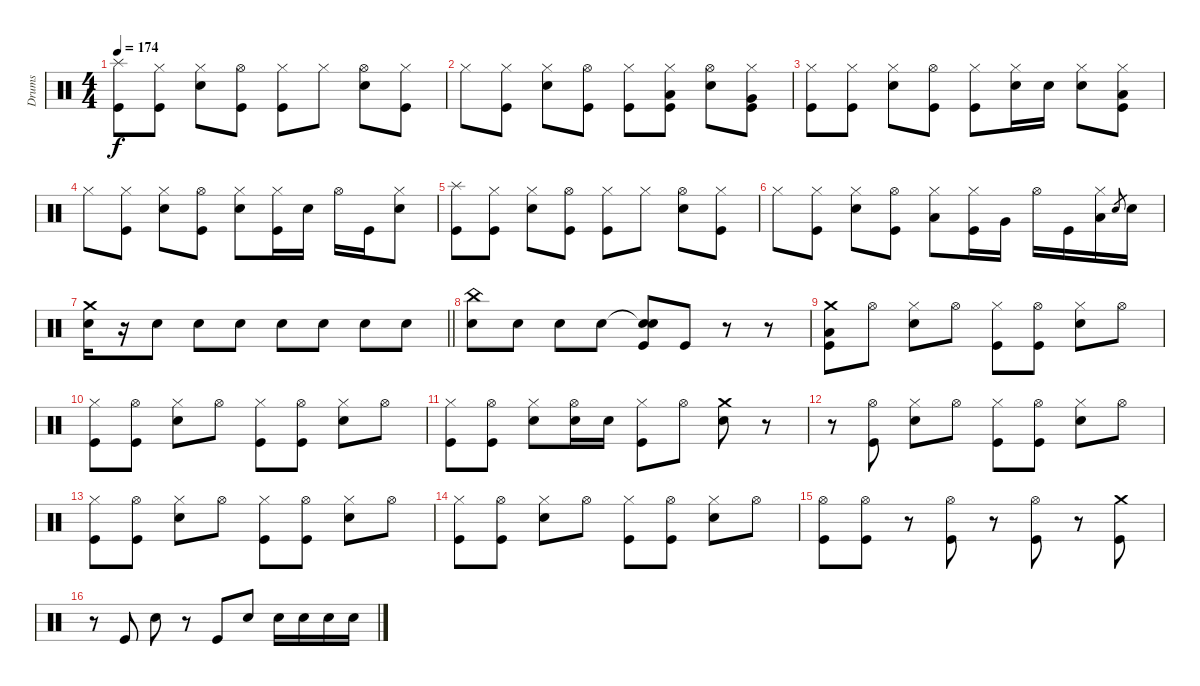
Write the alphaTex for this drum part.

\track ("Drums" "Drums") {instrument percussion}
\staff {score}
\articulation defaults
\ts (4 4)
\tempo 174
\clef neutral
\ks c
("Splash (hit)" "Kick (hit)").8{dy f} ("Hi-Hat (closed)" "Kick (hit)").8 ("Hi-Hat (closed)" "Electric Snare (hit)").8 ("Hi-Hat (open)" "Kick (hit)").8 ("Hi-Hat (closed)" "Kick (hit)").8 "Hi-Hat (closed)".8 ("Hi-Hat (open)" "Electric Snare (hit)").8 ("Hi-Hat (closed)" "Kick (hit)").8 |
"Hi-Hat (closed)".8 ("Hi-Hat (closed)" "Kick (hit)").8 ("Hi-Hat (closed)" "Electric Snare (hit)").8 ("Hi-Hat (open)" "Kick (hit)").8 ("Hi-Hat (closed)" "Kick (hit)").8 ("Hi-Hat (closed)" "Low Tom (hit)" "Kick (hit)").8 ("Hi-Hat (open)" "Electric Snare (hit)").8 ("Hi-Hat (closed)" "Very Low Tom (hit)" "Kick (hit)").8 |
("Hi-Hat (closed)" "Kick (hit)").8 ("Hi-Hat (closed)" "Kick (hit)").8 ("Hi-Hat (closed)" "Electric Snare (hit)").8 ("Hi-Hat (open)" "Kick (hit)").8 ("Hi-Hat (closed)" "Kick (hit)").8 ("Hi-Hat (closed)" "Electric Snare (hit)").16 "Electric Snare (hit)".16 ("Hi-Hat (closed)" "Electric Snare (hit)").8 ("Hi-Hat (closed)" "Low Floor Tom (hit)" "Kick (hit)").8 |
"Hi-Hat (closed)".8 ("Hi-Hat (closed)" "Kick (hit)").8 ("Hi-Hat (closed)" "Electric Snare (hit)").8 ("Hi-Hat (open)" "Kick (hit)").8 ("Hi-Hat (closed)" "Electric Snare (hit)").8 ("Hi-Hat (closed)" "Kick (hit)").16 "Electric Snare (hit)".16 "Hi-Hat (open)".16 "Kick (hit)".16 ("Hi-Hat (closed)" "Electric Snare (hit)").8 |
("Splash (hit)" "Kick (hit)").8 ("Hi-Hat (closed)" "Kick (hit)").8 ("Hi-Hat (closed)" "Electric Snare (hit)").8 ("Hi-Hat (open)" "Kick (hit)").8 ("Hi-Hat (closed)" "Kick (hit)").8 "Hi-Hat (closed)".8 ("Hi-Hat (open)" "Electric Snare (hit)").8 ("Hi-Hat (closed)" "Kick (hit)").8 |
"Hi-Hat (closed)".8 ("Hi-Hat (closed)" "Kick (hit)").8 ("Hi-Hat (closed)" "Electric Snare (hit)").8 ("Hi-Hat (open)" "Kick (hit)").8 ("Hi-Hat (closed)" "Low Tom (hit)").8 ("Hi-Hat (closed)" "Kick (hit)").16 "Very Low Tom (hit)".16 "Hi-Hat (open)".16 "Kick (hit)".16 ("Hi-Hat (closed)" "Low Floor Tom (hit)").16 "Electric Snare (hit)".8{gr} "Electric Snare (hit)".16 |
\barLineRight lightlight
("Crash medium (hit)" "Electric Snare (hit)").16 r.16 "Electric Snare (hit)".8 "Electric Snare (hit)".8 "Electric Snare (hit)".8 "Electric Snare (hit)".8 "Electric Snare (hit)".8 "Electric Snare (hit)".8 "Electric Snare (hit)".8 |
("China (hit)" "Electric Snare (hit)").8 "Electric Snare (hit)".8 "Electric Snare (hit)".8 "Electric Snare (hit)".8 ("Snare (hit)"{t} "Electric Snare (hit)" "Kick (hit)").8 "Kick (hit)".8 r.8 r.8 |
("Crash medium (hit)" "Low Floor Tom (hit)" "Kick (hit)").8 "Hi-Hat (open)".8 ("Hi-Hat (closed)" "Electric Snare (hit)").8 "Hi-Hat (open)".8 ("Hi-Hat (closed)" "Kick (hit)").8 ("Hi-Hat (open)" "Kick (hit)").8 ("Hi-Hat (closed)" "Electric Snare (hit)").8 "Hi-Hat (open)".8 |
("Hi-Hat (closed)" "Kick (hit)").8 ("Hi-Hat (open)" "Kick (hit)").8 ("Hi-Hat (closed)" "Electric Snare (hit)").8 "Hi-Hat (open)".8 ("Hi-Hat (closed)" "Kick (hit)").8 ("Hi-Hat (open)" "Kick (hit)").8 ("Hi-Hat (closed)" "Electric Snare (hit)").8 "Hi-Hat (open)".8 |
("Hi-Hat (closed)" "Kick (hit)").8 ("Hi-Hat (open)" "Kick (hit)").8 ("Hi-Hat (closed)" "Electric Snare (hit)").8 ("Hi-Hat (open)" "Electric Snare (hit)").16 "Electric Snare (hit)".16 ("Hi-Hat (closed)" "Kick (hit)").8 "Hi-Hat (open)".8 ("Crash medium (hit)" "Electric Snare (hit)").8 r.8 |
r.8 ("Hi-Hat (open)" "Kick (hit)").8 ("Hi-Hat (closed)" "Electric Snare (hit)").8 "Hi-Hat (open)".8 ("Hi-Hat (closed)" "Kick (hit)").8 ("Hi-Hat (open)" "Kick (hit)").8 ("Hi-Hat (closed)" "Electric Snare (hit)").8 "Hi-Hat (open)".8 |
("Hi-Hat (closed)" "Kick (hit)").8 ("Hi-Hat (open)" "Kick (hit)").8 ("Hi-Hat (closed)" "Electric Snare (hit)").8 "Hi-Hat (open)".8 ("Hi-Hat (closed)" "Kick (hit)").8 ("Hi-Hat (open)" "Kick (hit)").8 ("Hi-Hat (closed)" "Electric Snare (hit)").8 "Hi-Hat (open)".8 |
("Hi-Hat (closed)" "Kick (hit)").8 ("Hi-Hat (open)" "Kick (hit)").8 ("Hi-Hat (closed)" "Electric Snare (hit)").8 "Hi-Hat (open)".8 ("Hi-Hat (closed)" "Kick (hit)").8 ("Hi-Hat (open)" "Kick (hit)").8 ("Hi-Hat (closed)" "Electric Snare (hit)").8 "Hi-Hat (open)".8 |
("Hi-Hat (open)" "Kick (hit)").8 ("Hi-Hat (open)" "Kick (hit)").8 r.8 ("Hi-Hat (open)" "Kick (hit)").8 r.8 ("Hi-Hat (open)" "Kick (hit)").8 r.8 ("Crash medium (hit)" "Kick (hit)").8 |
r.8 "Kick (hit)".8 "Electric Snare (hit)".8 r.8 "Kick (hit)".8 "Electric Snare (hit)".8 "Electric Snare (hit)".16 "Electric Snare (hit)".16 "Electric Snare (hit)".16 "Electric Snare (hit)".16
